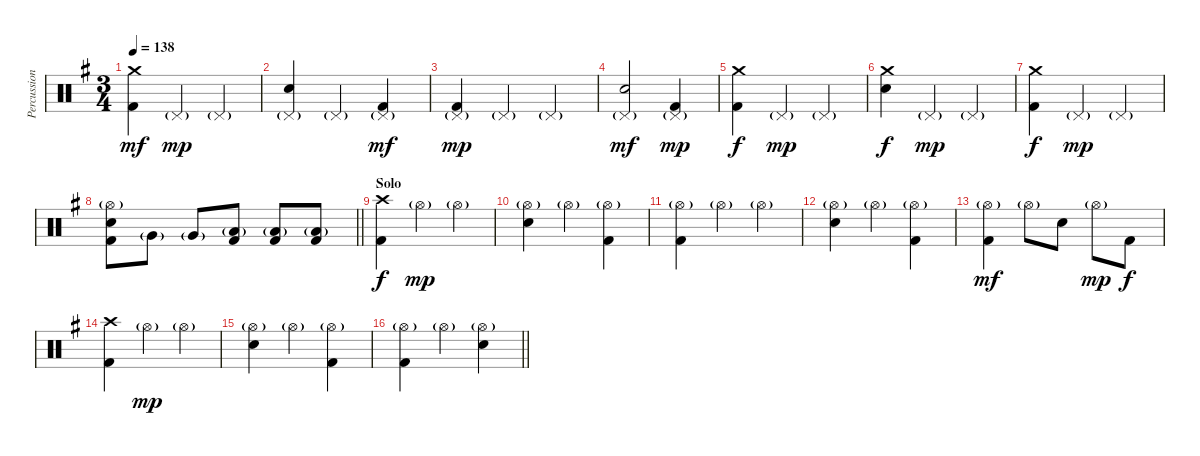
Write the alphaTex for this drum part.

\track ("Percussion (Thomen Stauch)" "Percussion") {instrument percussion}
\staff {score}
\articulation defaults
\ts (3 4)
\tempo 138
\clef neutral
\ks eminor
("Crash medium (hit)" "Kick (hit) 2").4{dy mf} "Pedal Hi-Hat (hit)"{g}.4{dy mp} "Pedal Hi-Hat (hit)"{g}.4 |
("Pedal Hi-Hat (hit)"{g} "Snare (hit) 2").4 "Pedal Hi-Hat (hit)"{g}.4 ("Pedal Hi-Hat (hit)"{g} "Kick (hit) 2").4{dy mf} |
("Pedal Hi-Hat (hit)"{g} "Kick (hit) 2").4{dy mp} "Pedal Hi-Hat (hit)"{g}.4 "Pedal Hi-Hat (hit)"{g}.4 |
("Pedal Hi-Hat (hit)"{g} "Snare (hit) 2").2{dy mf} ("Pedal Hi-Hat (hit)"{g} "Kick (hit) 2").4{dy mp} |
("Crash medium (hit)" "Kick (hit) 2").4{dy f} "Pedal Hi-Hat (hit)"{g}.4{dy mp} "Pedal Hi-Hat (hit)"{g}.4 |
("Crash medium (hit)" "Snare (hit) 2").4{dy f} "Pedal Hi-Hat (hit)"{g}.4{dy mp} "Pedal Hi-Hat (hit)"{g}.4 |
("Crash medium (hit)" "Kick (hit) 2").4{dy f} "Pedal Hi-Hat (hit)"{g}.4{dy mp} "Pedal Hi-Hat (hit)"{g}.4 |
\barLineRight lightlight
("Hi-Hat (open)"{g} "Snare (hit) 2" "Kick (hit) 2").8 "Very Low Tom (hit)"{g}.8 "Very Low Tom (hit)"{g}.8 ("Low Floor Tom (hit)"{g} "Kick (hit) 2").8 ("Low Floor Tom (hit)"{g} "Kick (hit) 2").8 ("Low Floor Tom (hit)"{g} "Kick (hit) 2").8 |
\section ("" "Solo")
("Crash high (hit)" "Kick (hit) 2").4{dy f} "Hi-Hat (open)"{g}.4{dy mp} "Hi-Hat (open)"{g}.4 |
("Hi-Hat (open)"{g} "Snare (hit) 2").4 "Hi-Hat (open)"{g}.4 ("Hi-Hat (open)"{g} "Kick (hit) 2").4 |
("Hi-Hat (open)"{g} "Kick (hit) 2").4 "Hi-Hat (open)"{g}.4 "Hi-Hat (open)"{g}.4 |
("Hi-Hat (open)"{g} "Snare (hit) 2").4 "Hi-Hat (open)"{g}.4 ("Hi-Hat (open)"{g} "Kick (hit) 2").4 |
("Hi-Hat (open)"{g} "Kick (hit) 2").4{dy mf} "Hi-Hat (open)"{g}.8 "Snare (hit) 2".8 "Hi-Hat (open)"{g}.8{dy mp} "Kick (hit) 2".8{dy f} |
("Crash high (hit)" "Kick (hit) 2").4 "Hi-Hat (open)"{g}.4{dy mp} "Hi-Hat (open)"{g}.4 |
("Hi-Hat (open)"{g} "Snare (hit) 2").4 "Hi-Hat (open)"{g}.4 ("Hi-Hat (open)"{g} "Kick (hit) 2").4 |
\barLineRight lightlight
("Hi-Hat (open)"{g} "Kick (hit) 2").4 "Hi-Hat (open)"{g}.4 ("Hi-Hat (open)"{g} "Snare (hit) 2").4
